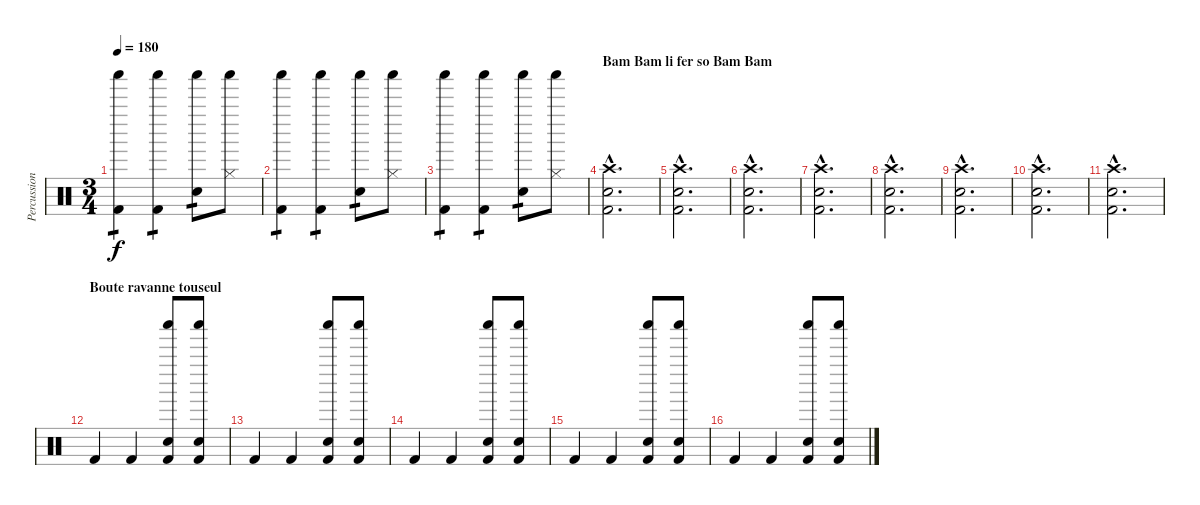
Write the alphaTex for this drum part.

\track ("Percussions" "Percussion") {instrument percussion}
\staff {score}
\articulation defaults
\ts (3 4)
\tempo 180
\clef neutral
\ks c
("Kick (hit) 2" "Shaker (hit)").4{tp 1 dy f} ("Kick (hit) 2" "Shaker (hit)").4{tp 1} ("Shaker (hit)" "Snare (hit) 2").8{tp 1} ("Shaker (hit)" "Hi-Hat (closed)").8 |
("Kick (hit) 2" "Shaker (hit)").4{tp 1} ("Kick (hit) 2" "Shaker (hit)").4{tp 1} ("Shaker (hit)" "Snare (hit) 2").8{tp 1} ("Shaker (hit)" "Hi-Hat (closed)").8 |
("Kick (hit) 2" "Shaker (hit)").4{tp 1} ("Kick (hit) 2" "Shaker (hit)").4{tp 1} ("Shaker (hit)" "Snare (hit) 2").8{tp 1} ("Shaker (hit)" "Hi-Hat (closed)").8 |
\section ("" "Bam Bam li fer so Bam Bam")
("Kick (hit) 2"{hac} "Snare (hit) 2"{hac} "Crash high (hit)"{hac}).2{d} |
("Kick (hit) 2"{hac} "Snare (hit) 2"{hac} "Crash high (hit)"{hac}).2{d} |
("Kick (hit) 2"{hac} "Snare (hit) 2"{hac} "Crash high (hit)"{hac}).2{d} |
("Kick (hit) 2"{hac} "Snare (hit) 2"{hac} "Crash high (hit)"{hac}).2{d} |
("Kick (hit) 2"{hac} "Snare (hit) 2"{hac} "Crash high (hit)"{hac}).2{d} |
("Kick (hit) 2"{hac} "Snare (hit) 2"{hac} "Crash high (hit)"{hac}).2{d} |
("Kick (hit) 2"{hac} "Snare (hit) 2"{hac} "Crash high (hit)"{hac}).2{d} |
("Kick (hit) 2"{hac} "Snare (hit) 2"{hac} "Crash high (hit)"{hac}).2{d} |
\section ("" "Boute ravanne touseul")
"Kick (hit) 2".4 "Kick (hit) 2".4 ("Kick (hit) 2" "Snare (hit) 2" "Shaker (hit)").8 ("Kick (hit) 2" "Snare (hit) 2" "Shaker (hit)").8 |
"Kick (hit) 2".4 "Kick (hit) 2".4 ("Kick (hit) 2" "Snare (hit) 2" "Shaker (hit)").8 ("Kick (hit) 2" "Snare (hit) 2" "Shaker (hit)").8 |
"Kick (hit) 2".4 "Kick (hit) 2".4 ("Kick (hit) 2" "Snare (hit) 2" "Shaker (hit)").8 ("Kick (hit) 2" "Snare (hit) 2" "Shaker (hit)").8 |
"Kick (hit) 2".4 "Kick (hit) 2".4 ("Kick (hit) 2" "Snare (hit) 2" "Shaker (hit)").8 ("Kick (hit) 2" "Snare (hit) 2" "Shaker (hit)").8 |
"Kick (hit) 2".4 "Kick (hit) 2".4 ("Kick (hit) 2" "Snare (hit) 2" "Shaker (hit)").8 ("Kick (hit) 2" "Snare (hit) 2" "Shaker (hit)").8
